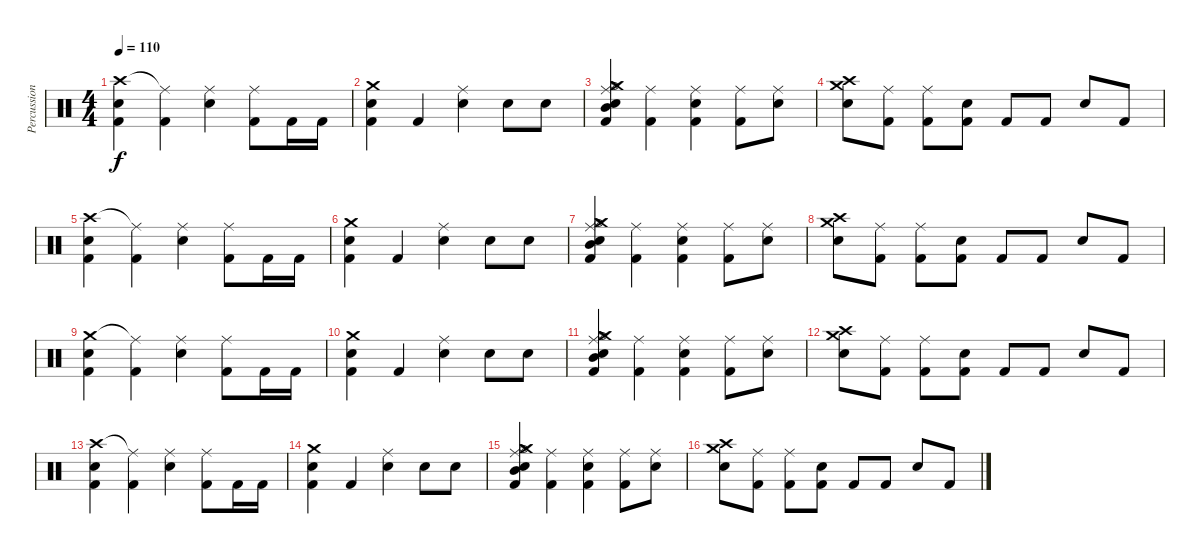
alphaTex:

\track ("Percussion" "Percussion") {instrument percussion}
\staff {score}
\articulation defaults
\ts (4 4)
\tempo 110
\clef neutral
\ks c
("Crash high (hit)" "Kick (hit) 2" "Snare (hit) 2").4{dy f} ("Ride (middle)"{t} "Kick (hit) 2").4 ("Ride (middle)" "Snare (hit) 2").4 ("Ride (middle)" "Kick (hit) 2").8 "Kick (hit) 2".16 "Kick (hit) 2".16 |
("Crash medium (hit)" "Snare (hit) 2" "Kick (hit) 2").4 "Kick (hit) 2".4 ("Ride (middle)" "Snare (hit) 2").4 "Snare (hit) 2".8 "Snare (hit) 2".8 |
("Hi-Hat (open)" "Crash medium (hit)" "Ride (middle)" "Mid Tom (hit)" "Snare (hit) 2" "Kick (hit) 2").4 ("Ride (middle)" "Kick (hit) 2").4 ("Ride (middle)" "Kick (hit) 2" "Snare (hit) 2").4 ("Ride (middle)" "Kick (hit) 2").8 ("Snare (hit) 2" "Ride (middle)").8 |
("Snare (hit) 2" "Crash medium (hit)" "Crash high (hit)").8 ("Kick (hit) 2" "Ride (middle)").8 ("Kick (hit) 2" "Ride (middle)").8 ("Snare (hit) 2" "Kick (hit) 2").8 "Kick (hit) 2".8 "Kick (hit) 2".8 "Snare (hit) 2".8 "Kick (hit) 2".8 |
("Crash high (hit)" "Kick (hit) 2" "Snare (hit) 2").4 ("Ride (middle)"{t} "Kick (hit) 2").4 ("Ride (middle)" "Snare (hit) 2").4 ("Ride (middle)" "Kick (hit) 2").8 "Kick (hit) 2".16 "Kick (hit) 2".16 |
("Crash medium (hit)" "Snare (hit) 2" "Kick (hit) 2").4 "Kick (hit) 2".4 ("Ride (middle)" "Snare (hit) 2").4 "Snare (hit) 2".8 "Snare (hit) 2".8 |
("Hi-Hat (open)" "Crash medium (hit)" "Ride (middle)" "Mid Tom (hit)" "Snare (hit) 2" "Kick (hit) 2").4 ("Ride (middle)" "Kick (hit) 2").4 ("Ride (middle)" "Kick (hit) 2" "Snare (hit) 2").4 ("Ride (middle)" "Kick (hit) 2").8 ("Snare (hit) 2" "Ride (middle)").8 |
("Snare (hit) 2" "Crash medium (hit)" "Crash high (hit)").8 ("Kick (hit) 2" "Ride (middle)").8 ("Kick (hit) 2" "Ride (middle)").8 ("Snare (hit) 2" "Kick (hit) 2").8 "Kick (hit) 2".8 "Kick (hit) 2".8 "Snare (hit) 2".8 "Kick (hit) 2".8 |
("Crash medium (hit)" "Kick (hit) 2" "Snare (hit) 2").4 ("Ride (middle)"{t} "Kick (hit) 2").4 ("Ride (middle)" "Snare (hit) 2").4 ("Ride (middle)" "Kick (hit) 2").8 "Kick (hit) 2".16 "Kick (hit) 2".16 |
("Crash medium (hit)" "Snare (hit) 2" "Kick (hit) 2").4 "Kick (hit) 2".4 ("Ride (middle)" "Snare (hit) 2").4 "Snare (hit) 2".8 "Snare (hit) 2".8 |
("Hi-Hat (open)" "Crash medium (hit)" "Ride (middle)" "Mid Tom (hit)" "Snare (hit) 2" "Kick (hit) 2").4 ("Ride (middle)" "Kick (hit) 2").4 ("Ride (middle)" "Kick (hit) 2" "Snare (hit) 2").4 ("Ride (middle)" "Kick (hit) 2").8 ("Snare (hit) 2" "Ride (middle)").8 |
("Snare (hit) 2" "Crash medium (hit)" "Crash high (hit)").8 ("Kick (hit) 2" "Ride (middle)").8 ("Kick (hit) 2" "Ride (middle)").8 ("Snare (hit) 2" "Kick (hit) 2").8 "Kick (hit) 2".8 "Kick (hit) 2".8 "Snare (hit) 2".8 "Kick (hit) 2".8 |
("Crash high (hit)" "Kick (hit) 2" "Snare (hit) 2").4 ("Ride (middle)"{t} "Kick (hit) 2").4 ("Ride (middle)" "Snare (hit) 2").4 ("Ride (middle)" "Kick (hit) 2").8 "Kick (hit) 2".16 "Kick (hit) 2".16 |
("Crash medium (hit)" "Snare (hit) 2" "Kick (hit) 2").4 "Kick (hit) 2".4 ("Ride (middle)" "Snare (hit) 2").4 "Snare (hit) 2".8 "Snare (hit) 2".8 |
("Hi-Hat (open)" "Crash medium (hit)" "Ride (middle)" "Mid Tom (hit)" "Snare (hit) 2" "Kick (hit) 2").4 ("Ride (middle)" "Kick (hit) 2").4 ("Ride (middle)" "Kick (hit) 2" "Snare (hit) 2").4 ("Ride (middle)" "Kick (hit) 2").8 ("Snare (hit) 2" "Ride (middle)").8 |
("Snare (hit) 2" "Crash medium (hit)" "Crash high (hit)").8 ("Kick (hit) 2" "Ride (middle)").8 ("Kick (hit) 2" "Ride (middle)").8 ("Snare (hit) 2" "Kick (hit) 2").8 "Kick (hit) 2".8 "Kick (hit) 2".8 "Snare (hit) 2".8 "Kick (hit) 2".8
